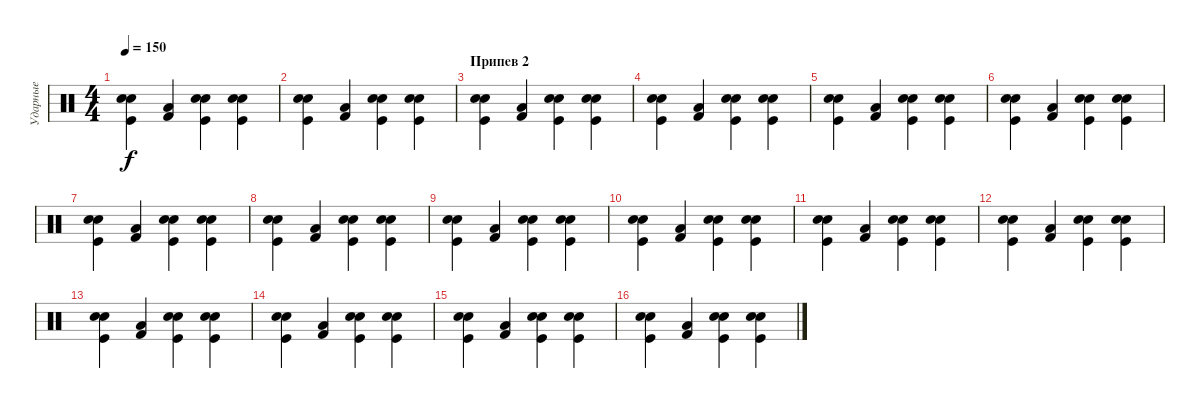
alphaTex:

\track ("Ударные" "Ударные") {instrument percussion}
\staff {score}
\articulation defaults
\ts (4 4)
\tempo 150
\clef neutral
\ks c
("Electric Snare (hit)" "Kick (hit)" "Snare (hit) 2").4{dy f} ("Kick (hit) 2" "Low Tom (hit)").4 ("Electric Snare (hit)" "Kick (hit)" "Snare (hit) 2").4 ("Electric Snare (hit)" "Kick (hit)" "Snare (hit) 2").4 |
("Electric Snare (hit)" "Kick (hit)" "Snare (hit) 2").4 ("Kick (hit) 2" "Low Tom (hit)").4 ("Electric Snare (hit)" "Kick (hit)" "Snare (hit) 2").4 ("Electric Snare (hit)" "Kick (hit)" "Snare (hit) 2").4 |
\section ("" "Припев 2")
("Electric Snare (hit)" "Kick (hit)" "Snare (hit) 2").4 ("Kick (hit) 2" "Low Tom (hit)").4 ("Electric Snare (hit)" "Kick (hit)" "Snare (hit) 2").4 ("Electric Snare (hit)" "Kick (hit)" "Snare (hit) 2").4 |
("Electric Snare (hit)" "Kick (hit)" "Snare (hit) 2").4 ("Kick (hit) 2" "Low Tom (hit)").4 ("Electric Snare (hit)" "Kick (hit)" "Snare (hit) 2").4 ("Electric Snare (hit)" "Kick (hit)" "Snare (hit) 2").4 |
("Electric Snare (hit)" "Kick (hit)" "Snare (hit) 2").4 ("Kick (hit) 2" "Low Tom (hit)").4 ("Electric Snare (hit)" "Kick (hit)" "Snare (hit) 2").4 ("Electric Snare (hit)" "Kick (hit)" "Snare (hit) 2").4 |
("Electric Snare (hit)" "Kick (hit)" "Snare (hit) 2").4 ("Kick (hit) 2" "Low Tom (hit)").4 ("Electric Snare (hit)" "Kick (hit)" "Snare (hit) 2").4 ("Electric Snare (hit)" "Kick (hit)" "Snare (hit) 2").4 |
("Electric Snare (hit)" "Kick (hit)" "Snare (hit) 2").4 ("Kick (hit) 2" "Low Tom (hit)").4 ("Electric Snare (hit)" "Kick (hit)" "Snare (hit) 2").4 ("Electric Snare (hit)" "Kick (hit)" "Snare (hit) 2").4 |
("Electric Snare (hit)" "Kick (hit)" "Snare (hit) 2").4 ("Kick (hit) 2" "Low Tom (hit)").4 ("Electric Snare (hit)" "Kick (hit)" "Snare (hit) 2").4 ("Electric Snare (hit)" "Kick (hit)" "Snare (hit) 2").4 |
("Electric Snare (hit)" "Kick (hit)" "Snare (hit) 2").4 ("Kick (hit) 2" "Low Tom (hit)").4 ("Electric Snare (hit)" "Kick (hit)" "Snare (hit) 2").4 ("Electric Snare (hit)" "Kick (hit)" "Snare (hit) 2").4 |
("Electric Snare (hit)" "Kick (hit)" "Snare (hit) 2").4 ("Kick (hit) 2" "Low Tom (hit)").4 ("Electric Snare (hit)" "Kick (hit)" "Snare (hit) 2").4 ("Electric Snare (hit)" "Kick (hit)" "Snare (hit) 2").4 |
("Electric Snare (hit)" "Kick (hit)" "Snare (hit) 2").4 ("Kick (hit) 2" "Low Tom (hit)").4 ("Electric Snare (hit)" "Kick (hit)" "Snare (hit) 2").4 ("Electric Snare (hit)" "Kick (hit)" "Snare (hit) 2").4 |
("Electric Snare (hit)" "Kick (hit)" "Snare (hit) 2").4 ("Kick (hit) 2" "Low Tom (hit)").4 ("Electric Snare (hit)" "Kick (hit)" "Snare (hit) 2").4 ("Electric Snare (hit)" "Kick (hit)" "Snare (hit) 2").4 |
("Electric Snare (hit)" "Kick (hit)" "Snare (hit) 2").4 ("Kick (hit) 2" "Low Tom (hit)").4 ("Electric Snare (hit)" "Kick (hit)" "Snare (hit) 2").4 ("Electric Snare (hit)" "Kick (hit)" "Snare (hit) 2").4 |
("Electric Snare (hit)" "Kick (hit)" "Snare (hit) 2").4 ("Kick (hit) 2" "Low Tom (hit)").4 ("Electric Snare (hit)" "Kick (hit)" "Snare (hit) 2").4 ("Electric Snare (hit)" "Kick (hit)" "Snare (hit) 2").4 |
("Electric Snare (hit)" "Kick (hit)" "Snare (hit) 2").4 ("Kick (hit) 2" "Low Tom (hit)").4 ("Electric Snare (hit)" "Kick (hit)" "Snare (hit) 2").4 ("Electric Snare (hit)" "Kick (hit)" "Snare (hit) 2").4 |
("Electric Snare (hit)" "Kick (hit)" "Snare (hit) 2").4 ("Kick (hit) 2" "Low Tom (hit)").4 ("Electric Snare (hit)" "Kick (hit)" "Snare (hit) 2").4 ("Electric Snare (hit)" "Kick (hit)" "Snare (hit) 2").4
